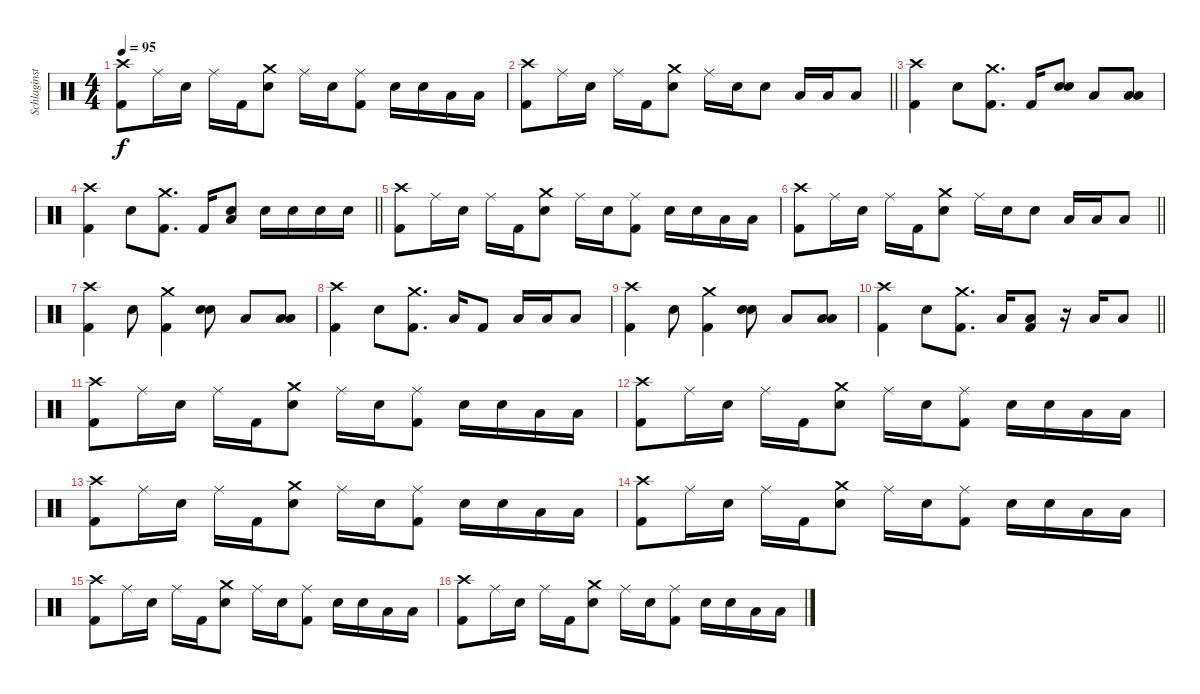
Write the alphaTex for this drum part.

\track ("Schlaginstrumente - Auswahl" "Schlaginst") {instrument percussion}
\staff {score}
\articulation defaults
\ts (4 4)
\tempo 95
\clef neutral
\ks c
("Crash high (hit)" "Kick (hit) 2").8{dy f} "Ride (middle)".16 "Snare (hit) 2".16 "Ride (middle)".16 "Kick (hit) 2".16 ("Crash medium (hit)" "Snare (hit) 2").8 "Ride (middle)".16 "Snare (hit) 2".16 ("Ride (middle)" "Kick (hit) 2").8 "Snare (hit) 2".16 "Snare (hit) 2".16 "Low Tom (hit)".16 "Low Tom (hit)".16 |
\barLineRight lightlight
("Crash high (hit)" "Kick (hit) 2").8 "Ride (middle)".16 "Snare (hit) 2".16 "Ride (middle)".16 "Kick (hit) 2".16 ("Crash medium (hit)" "Snare (hit) 2").8 "Ride (middle)".16 "Snare (hit) 2".16 "Snare (hit) 2".8 "Low Tom (hit)".16 "Low Tom (hit)".16 "Low Floor Tom (hit)".8 |
("Crash high (hit)" "Kick (hit) 2").4 "Snare (hit) 2".8 ("Crash medium (hit)" "Kick (hit) 2").8{d} "Kick (hit) 2".16 ("Snare (hit) 2" "Snare (hit) 2").8{bd 240} "Low Floor Tom (hit)".8 ("Low Tom (hit)" "Low Floor Tom (hit)").8 |
\barLineRight lightlight
("Crash high (hit)" "Kick (hit) 2").4 "Snare (hit) 2".8 ("Crash medium (hit)" "Kick (hit) 2").8{d} "Kick (hit) 2".16 ("Snare (hit) 2" "Low Floor Tom (hit)").8 "Snare (hit) 2".16 "Snare (hit) 2".16 "Snare (hit) 2".16 "Snare (hit) 2".16 |
("Crash high (hit)" "Kick (hit) 2").8 "Ride (middle)".16 "Snare (hit) 2".16 "Ride (middle)".16 "Kick (hit) 2".16 ("Crash medium (hit)" "Snare (hit) 2").8 "Ride (middle)".16 "Snare (hit) 2".16 ("Ride (middle)" "Kick (hit) 2").8 "Snare (hit) 2".16 "Snare (hit) 2".16 "Low Tom (hit)".16 "Low Tom (hit)".16 |
\barLineRight lightlight
("Crash high (hit)" "Kick (hit) 2").8 "Ride (middle)".16 "Snare (hit) 2".16 "Ride (middle)".16 "Kick (hit) 2".16 ("Crash medium (hit)" "Snare (hit) 2").8 "Ride (middle)".16 "Snare (hit) 2".16 "Snare (hit) 2".8 "Low Tom (hit)".16 "Low Tom (hit)".16 "Low Floor Tom (hit)".8 |
("Crash high (hit)" "Kick (hit) 2").4 "Snare (hit) 2".8 ("Crash medium (hit)" "Kick (hit) 2").4 ("Snare (hit) 2" "Snare (hit) 2").8{bd 240} "Low Floor Tom (hit)".8 ("Low Tom (hit)" "Low Floor Tom (hit)").8 |
("Crash high (hit)" "Kick (hit) 2").4 "Snare (hit) 2".8 ("Crash medium (hit)" "Kick (hit) 2").8{d} "Low Floor Tom (hit)".16 "Kick (hit) 2".8 "Low Floor Tom (hit)".16 "Low Tom (hit)".16 "Low Tom (hit)".8 |
("Crash high (hit)" "Kick (hit) 2").4 "Snare (hit) 2".8 ("Crash medium (hit)" "Kick (hit) 2").4 ("Snare (hit) 2" "Snare (hit) 2").8{bd 240} "Low Floor Tom (hit)".8 ("Low Tom (hit)" "Low Floor Tom (hit)").8 |
\barLineRight lightlight
("Crash high (hit)" "Kick (hit) 2").4 "Snare (hit) 2".8 ("Crash medium (hit)" "Kick (hit) 2").8{d} "Low Floor Tom (hit)".16 ("Low Floor Tom (hit)" "Kick (hit) 2").8 r.16 "Low Tom (hit)".16 "Low Tom (hit)".8 |
("Crash high (hit)" "Kick (hit) 2").8 "Ride (middle)".16 "Snare (hit) 2".16 "Ride (middle)".16 "Kick (hit) 2".16 ("Crash medium (hit)" "Snare (hit) 2").8 "Ride (middle)".16 "Snare (hit) 2".16 ("Ride (middle)" "Kick (hit) 2").8 "Snare (hit) 2".16 "Snare (hit) 2".16 "Low Tom (hit)".16 "Low Tom (hit)".16 |
("Crash high (hit)" "Kick (hit) 2").8 "Ride (middle)".16 "Snare (hit) 2".16 "Ride (middle)".16 "Kick (hit) 2".16 ("Crash medium (hit)" "Snare (hit) 2").8 "Ride (middle)".16 "Snare (hit) 2".16 ("Ride (middle)" "Kick (hit) 2").8 "Snare (hit) 2".16 "Snare (hit) 2".16 "Low Tom (hit)".16 "Low Tom (hit)".16 |
("Crash high (hit)" "Kick (hit) 2").8 "Ride (middle)".16 "Snare (hit) 2".16 "Ride (middle)".16 "Kick (hit) 2".16 ("Crash medium (hit)" "Snare (hit) 2").8 "Ride (middle)".16 "Snare (hit) 2".16 ("Ride (middle)" "Kick (hit) 2").8 "Snare (hit) 2".16 "Snare (hit) 2".16 "Low Tom (hit)".16 "Low Tom (hit)".16 |
("Crash high (hit)" "Kick (hit) 2").8 "Ride (middle)".16 "Snare (hit) 2".16 "Ride (middle)".16 "Kick (hit) 2".16 ("Crash medium (hit)" "Snare (hit) 2").8 "Ride (middle)".16 "Snare (hit) 2".16 ("Ride (middle)" "Kick (hit) 2").8 "Snare (hit) 2".16 "Snare (hit) 2".16 "Low Tom (hit)".16 "Low Tom (hit)".16 |
("Crash high (hit)" "Kick (hit) 2").8 "Ride (middle)".16 "Snare (hit) 2".16 "Ride (middle)".16 "Kick (hit) 2".16 ("Crash medium (hit)" "Snare (hit) 2").8 "Ride (middle)".16 "Snare (hit) 2".16 ("Ride (middle)" "Kick (hit) 2").8 "Snare (hit) 2".16 "Snare (hit) 2".16 "Low Tom (hit)".16 "Low Tom (hit)".16 |
("Crash high (hit)" "Kick (hit) 2").8 "Ride (middle)".16 "Snare (hit) 2".16 "Ride (middle)".16 "Kick (hit) 2".16 ("Crash medium (hit)" "Snare (hit) 2").8 "Ride (middle)".16 "Snare (hit) 2".16 ("Ride (middle)" "Kick (hit) 2").8 "Snare (hit) 2".16 "Snare (hit) 2".16 "Low Tom (hit)".16 "Low Tom (hit)".16
